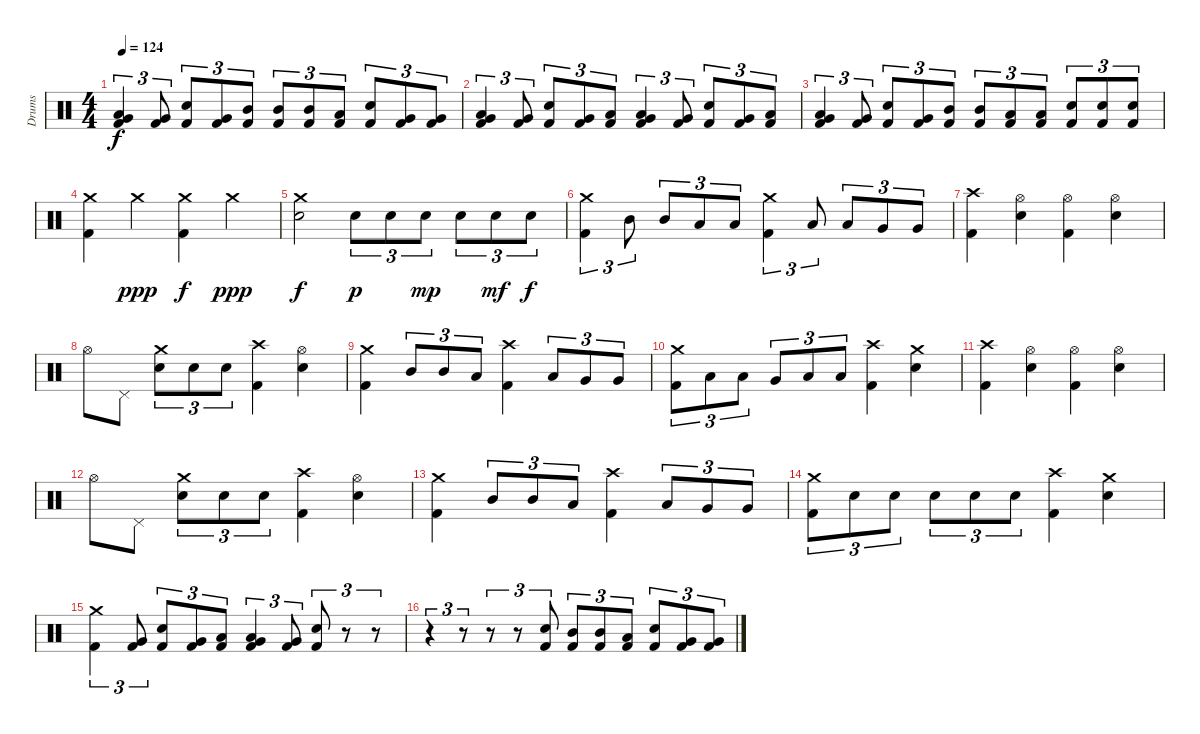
\track ("Drums" "Drums") {instrument percussion}
\staff {score}
\articulation defaults
\ts (4 4)
\tempo 124
\clef neutral
\ks c
("Low Tom (hit)" "Very Low Tom (hit)" "Kick (hit) 2").4{tu (3 2) dy f} ("Very Low Tom (hit)" "Kick (hit) 2").8{tu (3 2)} ("Snare (hit) 2" "Kick (hit) 2").8{tu (3 2)} ("Very Low Tom (hit)" "Kick (hit) 2").8{tu (3 2)} ("Mid Tom (hit)" "Kick (hit) 2").8{tu (3 2)} ("Mid Tom (hit)" "Kick (hit) 2").8{tu (3 2)} ("Mid Tom (hit)" "Kick (hit) 2").8{tu (3 2)} ("Low Tom (hit)" "Kick (hit) 2").8{tu (3 2)} ("Snare (hit) 2" "Kick (hit) 2").8{tu (3 2)} ("Very Low Tom (hit)" "Kick (hit) 2").8{tu (3 2)} ("Very Low Tom (hit)" "Kick (hit) 2").8{tu (3 2)} |
("Low Tom (hit)" "Very Low Tom (hit)" "Kick (hit) 2").4{tu (3 2)} ("Very Low Tom (hit)" "Kick (hit) 2").8{tu (3 2)} ("Snare (hit) 2" "Kick (hit) 2").8{tu (3 2)} ("Very Low Tom (hit)" "Kick (hit) 2").8{tu (3 2)} ("Low Tom (hit)" "Kick (hit) 2").8{tu (3 2)} ("Low Tom (hit)" "Very Low Tom (hit)" "Kick (hit) 2").4{tu (3 2)} ("Very Low Tom (hit)" "Kick (hit) 2").8{tu (3 2)} ("Snare (hit) 2" "Kick (hit) 2").8{tu (3 2)} ("Very Low Tom (hit)" "Kick (hit) 2").8{tu (3 2)} ("Low Tom (hit)" "Kick (hit) 2").8{tu (3 2)} |
("Low Tom (hit)" "Very Low Tom (hit)" "Kick (hit) 2").4{tu (3 2)} ("Very Low Tom (hit)" "Kick (hit) 2").8{tu (3 2)} ("Snare (hit) 2" "Kick (hit) 2").8{tu (3 2)} ("Very Low Tom (hit)" "Kick (hit) 2").8{tu (3 2)} ("Mid Tom (hit)" "Kick (hit) 2").8{tu (3 2)} ("Mid Tom (hit)" "Kick (hit) 2").8{tu (3 2)} ("Low Tom (hit)" "Kick (hit) 2").8{tu (3 2)} ("Low Tom (hit)" "Kick (hit) 2").8{tu (3 2)} ("Snare (hit) 2" "Kick (hit) 2").8{tu (3 2)} ("Snare (hit) 2" "Kick (hit) 2").8{tu (3 2)} ("Snare (hit) 2" "Kick (hit) 2").8{tu (3 2)} |
("Crash medium (hit)" "Kick (hit) 2").4 "Crash medium (hit)".4{dy ppp} ("Crash medium (hit)" "Kick (hit) 2").4{dy f} "Crash medium (hit)".4{dy ppp} |
("Crash medium (hit)" "Snare (hit) 2").2{dy f} "Snare (hit) 2".8{tu (3 2) dy p} "Snare (hit) 2".8{tu (3 2)} "Snare (hit) 2".8{tu (3 2) dy mp} "Snare (hit) 2".8{tu (3 2)} "Snare (hit) 2".8{tu (3 2) dy mf} "Snare (hit) 2".8{tu (3 2) dy f} |
("Crash medium (hit)" "Kick (hit) 2").4{tu (3 2)} "Mid Tom (hit)".8{tu (3 2)} "Mid Tom (hit)".8{tu (3 2)} "Low Tom (hit)".8{tu (3 2)} "Low Tom (hit)".8{tu (3 2)} ("Crash medium (hit)" "Kick (hit) 2").4{tu (3 2)} "Low Tom (hit)".8{tu (3 2)} "Low Tom (hit)".8{tu (3 2)} "Very Low Tom (hit)".8{tu (3 2)} "Very Low Tom (hit)".8{tu (3 2)} |
("Crash high (hit)" "Kick (hit) 2").4 ("Hi-Hat (open)" "Snare (hit) 2").4 ("Hi-Hat (open)" "Kick (hit) 2").4 ("Hi-Hat (open)" "Snare (hit) 2").4 |
"Hi-Hat (open)".8 "Pedal Hi-Hat (hit)".8 ("Crash medium (hit)" "Snare (hit) 2").8{tu (3 2)} "Snare (hit) 2".8{tu (3 2)} "Snare (hit) 2".8{tu (3 2)} ("Crash high (hit)" "Kick (hit) 2").4 ("Hi-Hat (open)" "Snare (hit) 2").4 |
("Crash medium (hit)" "Kick (hit) 2").4 "Mid Tom (hit)".8{tu (3 2)} "Mid Tom (hit)".8{tu (3 2)} "Low Tom (hit)".8{tu (3 2)} ("Crash high (hit)" "Kick (hit) 2").4 "Low Tom (hit)".8{tu (3 2)} "Very Low Tom (hit)".8{tu (3 2)} "Very Low Tom (hit)".8{tu (3 2)} |
("Crash medium (hit)" "Kick (hit) 2").8{tu (3 2)} "Low Tom (hit)".8{tu (3 2)} "Low Tom (hit)".8{tu (3 2)} "Very Low Tom (hit)".8{tu (3 2)} "Low Floor Tom (hit)".8{tu (3 2)} "Low Floor Tom (hit)".8{tu (3 2)} ("Crash high (hit)" "Kick (hit) 2").4 ("Crash medium (hit)" "Snare (hit) 2").4 |
("Crash high (hit)" "Kick (hit) 2").4 ("Hi-Hat (open)" "Snare (hit) 2").4 ("Hi-Hat (open)" "Kick (hit) 2").4 ("Hi-Hat (open)" "Snare (hit) 2").4 |
"Hi-Hat (open)".8 "Pedal Hi-Hat (hit)".8 ("Crash medium (hit)" "Snare (hit) 2").8{tu (3 2)} "Snare (hit) 2".8{tu (3 2)} "Snare (hit) 2".8{tu (3 2)} ("Crash high (hit)" "Kick (hit) 2").4 ("Hi-Hat (open)" "Snare (hit) 2").4 |
("Crash medium (hit)" "Kick (hit) 2").4 "Mid Tom (hit)".8{tu (3 2)} "Mid Tom (hit)".8{tu (3 2)} "Low Tom (hit)".8{tu (3 2)} ("Crash high (hit)" "Kick (hit) 2").4 "Low Tom (hit)".8{tu (3 2)} "Very Low Tom (hit)".8{tu (3 2)} "Very Low Tom (hit)".8{tu (3 2)} |
("Crash medium (hit)" "Kick (hit) 2").8{tu (3 2)} "Snare (hit) 2".8{tu (3 2)} "Snare (hit) 2".8{tu (3 2)} "Snare (hit) 2".8{tu (3 2)} "Snare (hit) 2".8{tu (3 2)} "Snare (hit) 2".8{tu (3 2)} ("Crash high (hit)" "Kick (hit) 2").4 ("Crash medium (hit)" "Snare (hit) 2").4 |
("Crash medium (hit)" "Kick (hit) 2").4{tu (3 2)} ("Very Low Tom (hit)" "Kick (hit) 2").8{tu (3 2)} ("Snare (hit) 2" "Kick (hit) 2").8{tu (3 2)} ("Very Low Tom (hit)" "Kick (hit) 2").8{tu (3 2)} ("Low Tom (hit)" "Kick (hit) 2").8{tu (3 2)} ("Low Tom (hit)" "Very Low Tom (hit)" "Kick (hit) 2").4{tu (3 2)} ("Very Low Tom (hit)" "Kick (hit) 2").8{tu (3 2)} ("Snare (hit) 2" "Kick (hit) 2").8{tu (3 2)} r.8{tu (3 2)} r.8{tu (3 2)} |
r.4{tu (3 2)} r.8{tu (3 2)} r.8{tu (3 2)} r.8{tu (3 2)} ("Snare (hit) 2" "Kick (hit) 2").8{tu (3 2)} ("Mid Tom (hit)" "Kick (hit) 2").8{tu (3 2)} ("Mid Tom (hit)" "Kick (hit) 2").8{tu (3 2)} ("Low Tom (hit)" "Kick (hit) 2").8{tu (3 2)} ("Snare (hit) 2" "Kick (hit) 2").8{tu (3 2)} ("Very Low Tom (hit)" "Kick (hit) 2").8{tu (3 2)} ("Very Low Tom (hit)" "Kick (hit) 2").8{tu (3 2)}
